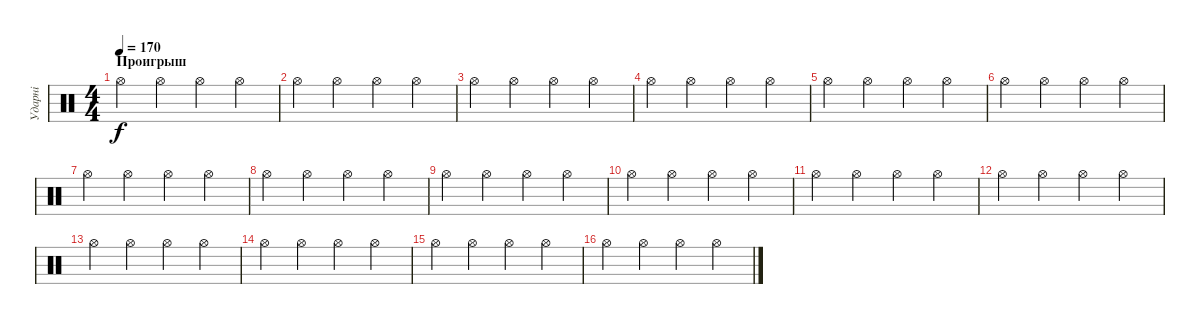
\track ("Ударні" "Ударні") {instrument percussion}
\staff {score}
\articulation defaults
\ts (4 4)
\section ("" "Проигрыш")
\tempo 170
\clef neutral
\ks c "Hi-Hat (open)".4{dy f} "Hi-Hat (open)".4 "Hi-Hat (open)".4 "Hi-Hat (open)".4
|
"Hi-Hat (open)".4 "Hi-Hat (open)".4 "Hi-Hat (open)".4 "Hi-Hat (open)".4 |
"Hi-Hat (open)".4 "Hi-Hat (open)".4 "Hi-Hat (open)".4 "Hi-Hat (open)".4 |
"Hi-Hat (open)".4 "Hi-Hat (open)".4 "Hi-Hat (open)".4 "Hi-Hat (open)".4 |
"Hi-Hat (open)".4 "Hi-Hat (open)".4 "Hi-Hat (open)".4 "Hi-Hat (open)".4 |
"Hi-Hat (open)".4 "Hi-Hat (open)".4 "Hi-Hat (open)".4 "Hi-Hat (open)".4 |
"Hi-Hat (open)".4 "Hi-Hat (open)".4 "Hi-Hat (open)".4 "Hi-Hat (open)".4 |
"Hi-Hat (open)".4 "Hi-Hat (open)".4 "Hi-Hat (open)".4 "Hi-Hat (open)".4 |
"Hi-Hat (open)".4 "Hi-Hat (open)".4 "Hi-Hat (open)".4 "Hi-Hat (open)".4 |
"Hi-Hat (open)".4 "Hi-Hat (open)".4 "Hi-Hat (open)".4 "Hi-Hat (open)".4 |
"Hi-Hat (open)".4 "Hi-Hat (open)".4 "Hi-Hat (open)".4 "Hi-Hat (open)".4 |
"Hi-Hat (open)".4 "Hi-Hat (open)".4 "Hi-Hat (open)".4 "Hi-Hat (open)".4 |
"Hi-Hat (open)".4 "Hi-Hat (open)".4 "Hi-Hat (open)".4 "Hi-Hat (open)".4 |
"Hi-Hat (open)".4 "Hi-Hat (open)".4 "Hi-Hat (open)".4 "Hi-Hat (open)".4 |
"Hi-Hat (open)".4 "Hi-Hat (open)".4 "Hi-Hat (open)".4 "Hi-Hat (open)".4 |
"Hi-Hat (open)".4 "Hi-Hat (open)".4 "Hi-Hat (open)".4 "Hi-Hat (open)".4
